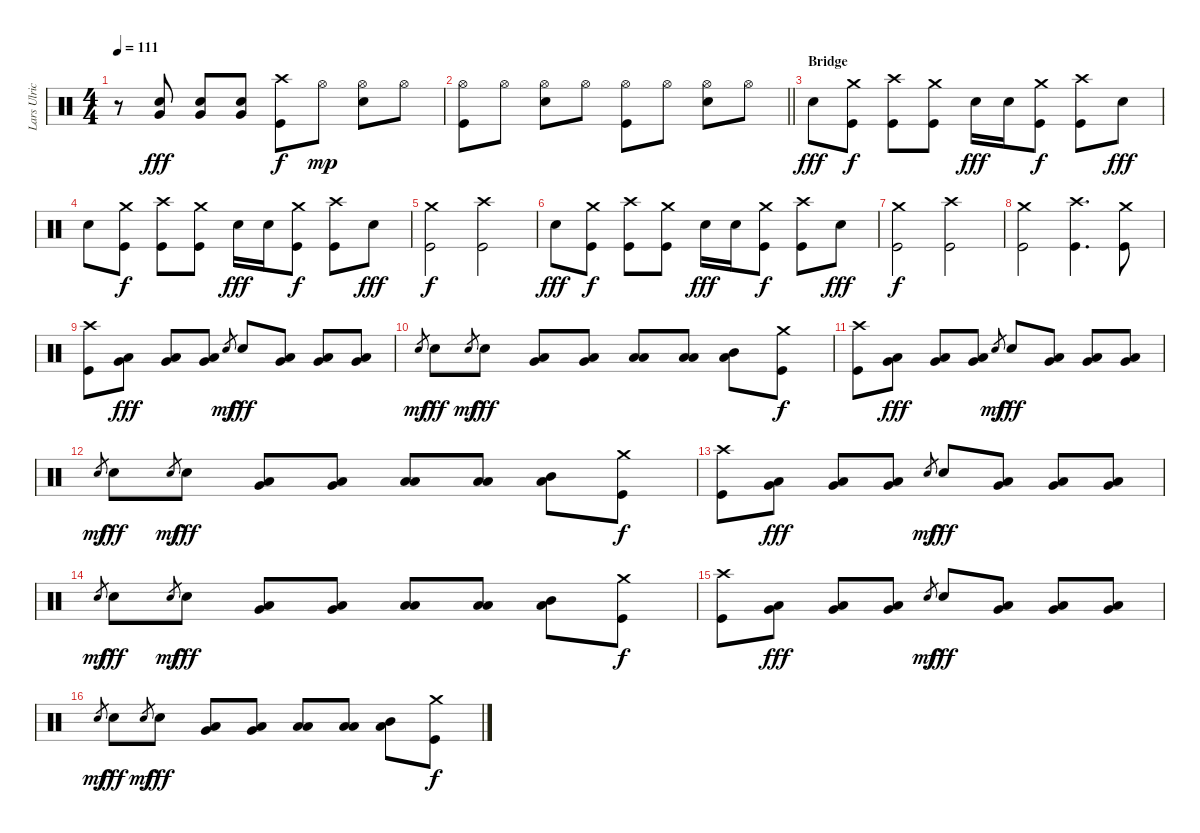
\track ("Lars Ulrich (Drums)" "Lars Ulric") {instrument percussion}
\staff {score}
\articulation defaults
\ts (4 4)
\tempo 111
\clef neutral
\ks c
r.8{dy mf} ("Very Low Tom (hit)" "Snare (hit) 2").8{dy fff} ("Very Low Tom (hit)" "Snare (hit) 2").8 ("Very Low Tom (hit)" "Snare (hit) 2").8 ("Crash high (hit)" "Kick (hit)").8{dy f} "Hi-Hat (open)".8{dy mp} ("Hi-Hat (open)" "Snare (hit) 2").8 "Hi-Hat (open)".8 |
\barLineRight lightlight
("Hi-Hat (open)" "Kick (hit)").8 "Hi-Hat (open)".8 ("Hi-Hat (open)" "Snare (hit) 2").8 "Hi-Hat (open)".8 ("Hi-Hat (open)" "Kick (hit)").8 "Hi-Hat (open)".8 ("Hi-Hat (open)" "Snare (hit) 2").8 "Hi-Hat (open)".8 |
\section ("" "Bridge")
"Snare (hit) 2".8{dy fff} ("Crash medium (hit)" "Kick (hit)").8{dy f} ("Crash high (hit)" "Kick (hit)").8 ("Crash medium (hit)" "Kick (hit)").8 "Snare (hit) 2".16{dy fff} "Snare (hit) 2".16 ("Crash medium (hit)" "Kick (hit)").8{dy f} ("Crash high (hit)" "Kick (hit)").8 "Snare (hit) 2".8{dy fff} |
"Snare (hit) 2".8 ("Crash medium (hit)" "Kick (hit)").8{dy f} ("Crash high (hit)" "Kick (hit)").8 ("Crash medium (hit)" "Kick (hit)").8 "Snare (hit) 2".16{dy fff} "Snare (hit) 2".16 ("Crash medium (hit)" "Kick (hit)").8{dy f} ("Crash high (hit)" "Kick (hit)").8 "Snare (hit) 2".8{dy fff} |
("Crash medium (hit)" "Kick (hit)").2{dy f} ("Crash high (hit)" "Kick (hit)").2 |
"Snare (hit) 2".8{dy fff} ("Crash medium (hit)" "Kick (hit)").8{dy f} ("Crash high (hit)" "Kick (hit)").8 ("Crash medium (hit)" "Kick (hit)").8 "Snare (hit) 2".16{dy fff} "Snare (hit) 2".16 ("Crash medium (hit)" "Kick (hit)").8{dy f} ("Crash high (hit)" "Kick (hit)").8 "Snare (hit) 2".8{dy fff} |
("Crash medium (hit)" "Kick (hit)").2{dy f} ("Crash high (hit)" "Kick (hit)").2 |
("Crash medium (hit)" "Kick (hit)").2 ("Crash high (hit)" "Kick (hit)").4{d} ("Crash medium (hit)" "Kick (hit)").8 |
("Crash high (hit)" "Kick (hit)").8 ("Very Low Tom (hit)" "Low Floor Tom (hit)").8{dy fff} ("Very Low Tom (hit)" "Low Floor Tom (hit)").8 ("Very Low Tom (hit)" "Low Floor Tom (hit)").8 "Snare (hit)".8{gr dy mf} "Snare (hit) 2".8{dy fff} ("Very Low Tom (hit)" "Low Floor Tom (hit)").8 ("Very Low Tom (hit)" "Low Floor Tom (hit)").8 ("Very Low Tom (hit)" "Low Floor Tom (hit)").8 |
"Snare (hit)".8{gr dy mf} "Snare (hit) 2".8{dy fff} "Snare (hit)".8{gr dy mf} "Snare (hit) 2".8{dy fff} ("Very Low Tom (hit)" "Low Floor Tom (hit)").8 ("Very Low Tom (hit)" "Low Floor Tom (hit)").8 ("Low Tom (hit)" "Low Floor Tom (hit)").8 ("Low Tom (hit)" "Low Floor Tom (hit)").8 ("Mid Tom (hit)" "Low Floor Tom (hit)").8 ("Crash medium (hit)" "Kick (hit)").8{dy f} |
("Crash high (hit)" "Kick (hit)").8 ("Very Low Tom (hit)" "Low Floor Tom (hit)").8{dy fff} ("Very Low Tom (hit)" "Low Floor Tom (hit)").8 ("Very Low Tom (hit)" "Low Floor Tom (hit)").8 "Snare (hit)".8{gr dy mf} "Snare (hit) 2".8{dy fff} ("Very Low Tom (hit)" "Low Floor Tom (hit)").8 ("Very Low Tom (hit)" "Low Floor Tom (hit)").8 ("Very Low Tom (hit)" "Low Floor Tom (hit)").8 |
"Snare (hit)".8{gr dy mf} "Snare (hit) 2".8{dy fff} "Snare (hit)".8{gr dy mf} "Snare (hit) 2".8{dy fff} ("Very Low Tom (hit)" "Low Floor Tom (hit)").8 ("Very Low Tom (hit)" "Low Floor Tom (hit)").8 ("Low Tom (hit)" "Low Floor Tom (hit)").8 ("Low Tom (hit)" "Low Floor Tom (hit)").8 ("Mid Tom (hit)" "Low Floor Tom (hit)").8 ("Crash medium (hit)" "Kick (hit)").8{dy f} |
("Crash high (hit)" "Kick (hit)").8 ("Very Low Tom (hit)" "Low Floor Tom (hit)").8{dy fff} ("Very Low Tom (hit)" "Low Floor Tom (hit)").8 ("Very Low Tom (hit)" "Low Floor Tom (hit)").8 "Snare (hit)".8{gr dy mf} "Snare (hit) 2".8{dy fff} ("Very Low Tom (hit)" "Low Floor Tom (hit)").8 ("Very Low Tom (hit)" "Low Floor Tom (hit)").8 ("Very Low Tom (hit)" "Low Floor Tom (hit)").8 |
"Snare (hit)".8{gr dy mf} "Snare (hit) 2".8{dy fff} "Snare (hit)".8{gr dy mf} "Snare (hit) 2".8{dy fff} ("Very Low Tom (hit)" "Low Floor Tom (hit)").8 ("Very Low Tom (hit)" "Low Floor Tom (hit)").8 ("Low Tom (hit)" "Low Floor Tom (hit)").8 ("Low Tom (hit)" "Low Floor Tom (hit)").8 ("Mid Tom (hit)" "Low Floor Tom (hit)").8 ("Crash medium (hit)" "Kick (hit)").8{dy f} |
("Crash high (hit)" "Kick (hit)").8 ("Very Low Tom (hit)" "Low Floor Tom (hit)").8{dy fff} ("Very Low Tom (hit)" "Low Floor Tom (hit)").8 ("Very Low Tom (hit)" "Low Floor Tom (hit)").8 "Snare (hit)".8{gr dy mf} "Snare (hit) 2".8{dy fff} ("Very Low Tom (hit)" "Low Floor Tom (hit)").8 ("Very Low Tom (hit)" "Low Floor Tom (hit)").8 ("Very Low Tom (hit)" "Low Floor Tom (hit)").8 |
"Snare (hit)".8{gr dy mf} "Snare (hit) 2".8{dy fff} "Snare (hit)".8{gr dy mf} "Snare (hit) 2".8{dy fff} ("Very Low Tom (hit)" "Low Floor Tom (hit)").8 ("Very Low Tom (hit)" "Low Floor Tom (hit)").8 ("Low Tom (hit)" "Low Floor Tom (hit)").8 ("Low Tom (hit)" "Low Floor Tom (hit)").8 ("Mid Tom (hit)" "Low Floor Tom (hit)").8 ("Crash medium (hit)" "Kick (hit)").8{dy f}
